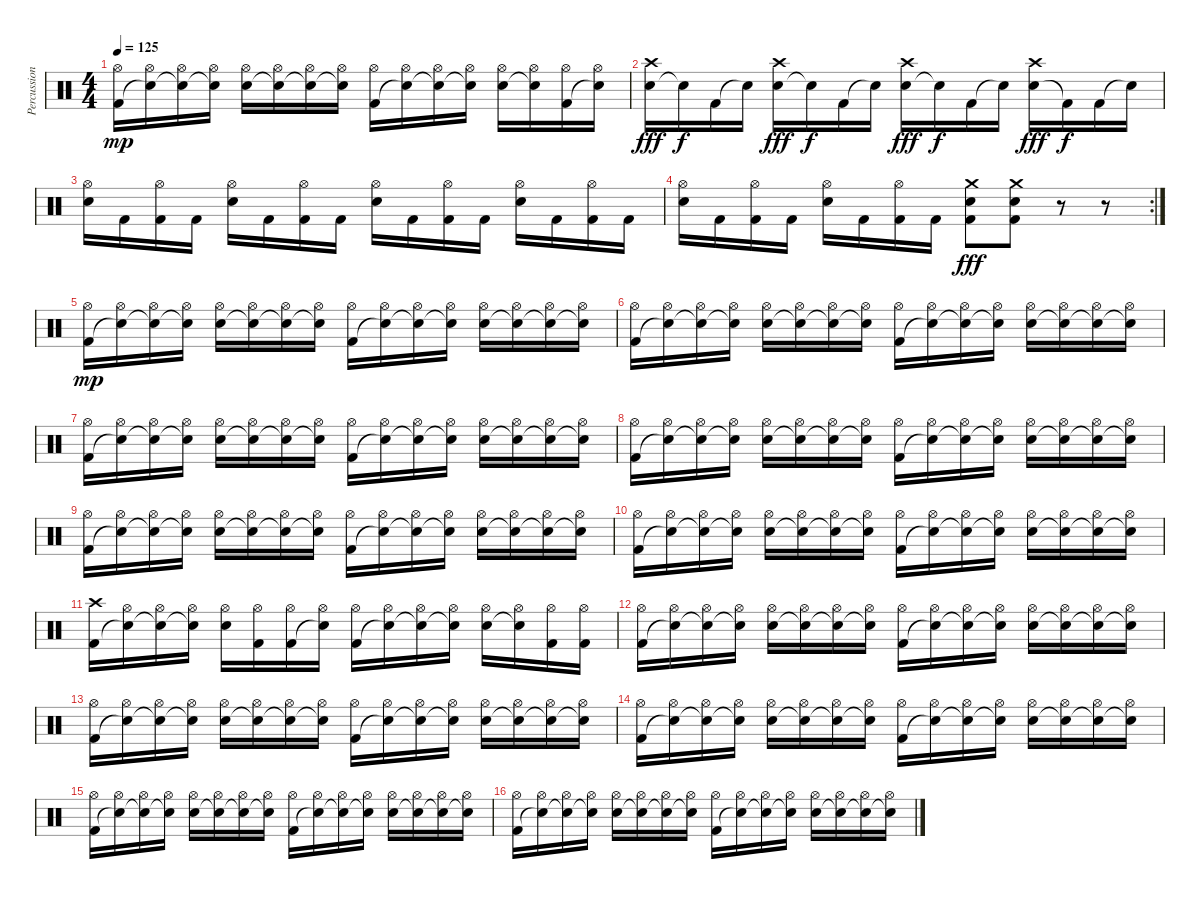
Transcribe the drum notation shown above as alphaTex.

\track ("Percussion" "Percussion") {instrument percussion}
\staff {score}
\articulation defaults
\ts (4 4)
\tempo 125
\clef neutral
\ks c
("Kick (hit) 2" "Hi-Hat (open)").16{dy mp} ("Snare (hit)"{t} "Hi-Hat (open)").16 ("Snare (hit)"{t} "Hi-Hat (open)").16 ("Snare (hit)"{t} "Hi-Hat (open)").16 ("Electric Snare (hit)" "Hi-Hat (open)").16 ("Snare (hit)"{t} "Hi-Hat (open)").16 ("Snare (hit)"{t} "Hi-Hat (open)").16 ("Snare (hit)"{t} "Hi-Hat (open)").16 ("Kick (hit) 2" "Hi-Hat (open)").16 ("Snare (hit)"{t} "Hi-Hat (open)").16 ("Snare (hit)"{t} "Hi-Hat (open)").16 ("Snare (hit)"{t} "Hi-Hat (open)").16 ("Electric Snare (hit)" "Hi-Hat (open)").16 ("Snare (hit)"{t} "Hi-Hat (open)").16 ("Kick (hit) 2" "Hi-Hat (open)").16 ("Snare (hit)"{t} "Hi-Hat (open)").16 |
("Electric Snare (hit)" "Crash high (hit)").16{dy fff} "Snare (hit)"{t}.16{dy f} "Kick (hit) 2".16 "Snare (hit)"{t}.16 ("Electric Snare (hit)" "Crash high (hit)").16{dy fff} "Snare (hit)"{t}.16{dy f} "Kick (hit) 2".16 "Snare (hit)"{t}.16 ("Electric Snare (hit)" "Crash high (hit)").16{dy fff} "Snare (hit)"{t}.16{dy f} "Kick (hit) 2".16 "Snare (hit)"{t}.16 ("Electric Snare (hit)" "Crash high (hit)").16{dy fff} "Kick (hit) 2"{t}.16{dy f} "Kick (hit) 2".16 "Snare (hit)"{t}.16 |
("Electric Snare (hit)" "Hi-Hat (open)").16 "Kick (hit) 2".16 ("Kick (hit) 2" "Hi-Hat (open)").16 "Kick (hit) 2".16 ("Electric Snare (hit)" "Hi-Hat (open)").16 "Kick (hit) 2".16 ("Kick (hit) 2" "Hi-Hat (open)").16 "Kick (hit) 2".16 ("Electric Snare (hit)" "Hi-Hat (open)").16 "Kick (hit) 2".16 ("Kick (hit) 2" "Hi-Hat (open)").16 "Kick (hit) 2".16 ("Electric Snare (hit)" "Hi-Hat (open)").16 "Kick (hit) 2".16 ("Kick (hit) 2" "Hi-Hat (open)").16 "Kick (hit) 2".16 |
\rc 2
("Electric Snare (hit)" "Hi-Hat (open)").16 "Kick (hit) 2".16 ("Kick (hit) 2" "Hi-Hat (open)").16 "Kick (hit) 2".16 ("Electric Snare (hit)" "Hi-Hat (open)").16 "Kick (hit) 2".16 ("Kick (hit) 2" "Hi-Hat (open)").16 "Kick (hit) 2".16 ("Electric Snare (hit)" "Kick (hit) 2" "Crash medium (hit)").8{dy fff} ("Electric Snare (hit)" "Kick (hit) 2" "Crash medium (hit)").8 r.8 r.8 |
("Kick (hit) 2" "Hi-Hat (open)").16{dy mp} ("Snare (hit)"{t} "Hi-Hat (open)").16 ("Snare (hit)"{t} "Hi-Hat (open)").16 ("Snare (hit)"{t} "Hi-Hat (open)").16 ("Electric Snare (hit)" "Hi-Hat (open)").16 ("Snare (hit)"{t} "Hi-Hat (open)").16 ("Snare (hit)"{t} "Hi-Hat (open)").16 ("Snare (hit)"{t} "Hi-Hat (open)").16 ("Kick (hit) 2" "Hi-Hat (open)").16 ("Snare (hit)"{t} "Hi-Hat (open)").16 ("Snare (hit)"{t} "Hi-Hat (open)").16 ("Snare (hit)"{t} "Hi-Hat (open)").16 ("Electric Snare (hit)" "Hi-Hat (open)").16 ("Snare (hit)"{t} "Hi-Hat (open)").16 ("Snare (hit)"{t} "Hi-Hat (open)").16 ("Snare (hit)"{t} "Hi-Hat (open)").16 |
("Kick (hit) 2" "Hi-Hat (open)").16 ("Snare (hit)"{t} "Hi-Hat (open)").16 ("Snare (hit)"{t} "Hi-Hat (open)").16 ("Snare (hit)"{t} "Hi-Hat (open)").16 ("Electric Snare (hit)" "Hi-Hat (open)").16 ("Snare (hit)"{t} "Hi-Hat (open)").16 ("Snare (hit)"{t} "Hi-Hat (open)").16 ("Snare (hit)"{t} "Hi-Hat (open)").16 ("Kick (hit) 2" "Hi-Hat (open)").16 ("Snare (hit)"{t} "Hi-Hat (open)").16 ("Snare (hit)"{t} "Hi-Hat (open)").16 ("Snare (hit)"{t} "Hi-Hat (open)").16 ("Electric Snare (hit)" "Hi-Hat (open)").16 ("Snare (hit)"{t} "Hi-Hat (open)").16 ("Snare (hit)"{t} "Hi-Hat (open)").16 ("Snare (hit)"{t} "Hi-Hat (open)").16 |
("Kick (hit) 2" "Hi-Hat (open)").16 ("Snare (hit)"{t} "Hi-Hat (open)").16 ("Snare (hit)"{t} "Hi-Hat (open)").16 ("Snare (hit)"{t} "Hi-Hat (open)").16 ("Electric Snare (hit)" "Hi-Hat (open)").16 ("Snare (hit)"{t} "Hi-Hat (open)").16 ("Snare (hit)"{t} "Hi-Hat (open)").16 ("Snare (hit)"{t} "Hi-Hat (open)").16 ("Kick (hit) 2" "Hi-Hat (open)").16 ("Snare (hit)"{t} "Hi-Hat (open)").16 ("Snare (hit)"{t} "Hi-Hat (open)").16 ("Snare (hit)"{t} "Hi-Hat (open)").16 ("Electric Snare (hit)" "Hi-Hat (open)").16 ("Snare (hit)"{t} "Hi-Hat (open)").16 ("Snare (hit)"{t} "Hi-Hat (open)").16 ("Snare (hit)"{t} "Hi-Hat (open)").16 |
("Kick (hit) 2" "Hi-Hat (open)").16 ("Snare (hit)"{t} "Hi-Hat (open)").16 ("Snare (hit)"{t} "Hi-Hat (open)").16 ("Snare (hit)"{t} "Hi-Hat (open)").16 ("Electric Snare (hit)" "Hi-Hat (open)").16 ("Snare (hit)"{t} "Hi-Hat (open)").16 ("Snare (hit)"{t} "Hi-Hat (open)").16 ("Snare (hit)"{t} "Hi-Hat (open)").16 ("Kick (hit) 2" "Hi-Hat (open)").16 ("Snare (hit)"{t} "Hi-Hat (open)").16 ("Snare (hit)"{t} "Hi-Hat (open)").16 ("Snare (hit)"{t} "Hi-Hat (open)").16 ("Electric Snare (hit)" "Hi-Hat (open)").16 ("Snare (hit)"{t} "Hi-Hat (open)").16 ("Snare (hit)"{t} "Hi-Hat (open)").16 ("Snare (hit)"{t} "Hi-Hat (open)").16 |
("Kick (hit) 2" "Hi-Hat (open)").16 ("Snare (hit)"{t} "Hi-Hat (open)").16 ("Snare (hit)"{t} "Hi-Hat (open)").16 ("Snare (hit)"{t} "Hi-Hat (open)").16 ("Electric Snare (hit)" "Hi-Hat (open)").16 ("Snare (hit)"{t} "Hi-Hat (open)").16 ("Snare (hit)"{t} "Hi-Hat (open)").16 ("Snare (hit)"{t} "Hi-Hat (open)").16 ("Kick (hit) 2" "Hi-Hat (open)").16 ("Snare (hit)"{t} "Hi-Hat (open)").16 ("Snare (hit)"{t} "Hi-Hat (open)").16 ("Snare (hit)"{t} "Hi-Hat (open)").16 ("Electric Snare (hit)" "Hi-Hat (open)").16 ("Snare (hit)"{t} "Hi-Hat (open)").16 ("Snare (hit)"{t} "Hi-Hat (open)").16 ("Snare (hit)"{t} "Hi-Hat (open)").16 |
("Kick (hit) 2" "Hi-Hat (open)").16 ("Snare (hit)"{t} "Hi-Hat (open)").16 ("Snare (hit)"{t} "Hi-Hat (open)").16 ("Snare (hit)"{t} "Hi-Hat (open)").16 ("Electric Snare (hit)" "Hi-Hat (open)").16 ("Snare (hit)"{t} "Hi-Hat (open)").16 ("Snare (hit)"{t} "Hi-Hat (open)").16 ("Snare (hit)"{t} "Hi-Hat (open)").16 ("Kick (hit) 2" "Hi-Hat (open)").16 ("Snare (hit)"{t} "Hi-Hat (open)").16 ("Snare (hit)"{t} "Hi-Hat (open)").16 ("Snare (hit)"{t} "Hi-Hat (open)").16 ("Electric Snare (hit)" "Hi-Hat (open)").16 ("Snare (hit)"{t} "Hi-Hat (open)").16 ("Snare (hit)"{t} "Hi-Hat (open)").16 ("Snare (hit)"{t} "Hi-Hat (open)").16 |
("Kick (hit) 2" "Crash high (hit)").16 ("Snare (hit)"{t} "Hi-Hat (open)").16 ("Snare (hit)"{t} "Hi-Hat (open)").16 ("Snare (hit)"{t} "Hi-Hat (open)").16 ("Electric Snare (hit)" "Hi-Hat (open)").16 ("Kick (hit) 2" "Hi-Hat (open)").16 ("Kick (hit) 2" "Hi-Hat (open)").16 ("Snare (hit)"{t} "Hi-Hat (open)").16 ("Kick (hit) 2" "Hi-Hat (open)").16 ("Snare (hit)"{t} "Hi-Hat (open)").16 ("Snare (hit)"{t} "Hi-Hat (open)").16 ("Snare (hit)"{t} "Hi-Hat (open)").16 ("Electric Snare (hit)" "Hi-Hat (open)").16 ("Snare (hit)"{t} "Hi-Hat (open)").16 ("Kick (hit) 2" "Hi-Hat (open)").16 ("Kick (hit) 2" "Hi-Hat (open)").16 |
("Kick (hit) 2" "Hi-Hat (open)").16 ("Snare (hit)"{t} "Hi-Hat (open)").16 ("Snare (hit)"{t} "Hi-Hat (open)").16 ("Snare (hit)"{t} "Hi-Hat (open)").16 ("Electric Snare (hit)" "Hi-Hat (open)").16 ("Snare (hit)"{t} "Hi-Hat (open)").16 ("Snare (hit)"{t} "Hi-Hat (open)").16 ("Snare (hit)"{t} "Hi-Hat (open)").16 ("Kick (hit) 2" "Hi-Hat (open)").16 ("Snare (hit)"{t} "Hi-Hat (open)").16 ("Snare (hit)"{t} "Hi-Hat (open)").16 ("Snare (hit)"{t} "Hi-Hat (open)").16 ("Electric Snare (hit)" "Hi-Hat (open)").16 ("Snare (hit)"{t} "Hi-Hat (open)").16 ("Snare (hit)"{t} "Hi-Hat (open)").16 ("Snare (hit)"{t} "Hi-Hat (open)").16 |
("Kick (hit) 2" "Hi-Hat (open)").16 ("Snare (hit)"{t} "Hi-Hat (open)").16 ("Snare (hit)"{t} "Hi-Hat (open)").16 ("Snare (hit)"{t} "Hi-Hat (open)").16 ("Electric Snare (hit)" "Hi-Hat (open)").16 ("Snare (hit)"{t} "Hi-Hat (open)").16 ("Snare (hit)"{t} "Hi-Hat (open)").16 ("Snare (hit)"{t} "Hi-Hat (open)").16 ("Kick (hit) 2" "Hi-Hat (open)").16 ("Snare (hit)"{t} "Hi-Hat (open)").16 ("Snare (hit)"{t} "Hi-Hat (open)").16 ("Snare (hit)"{t} "Hi-Hat (open)").16 ("Electric Snare (hit)" "Hi-Hat (open)").16 ("Snare (hit)"{t} "Hi-Hat (open)").16 ("Snare (hit)"{t} "Hi-Hat (open)").16 ("Snare (hit)"{t} "Hi-Hat (open)").16 |
("Kick (hit) 2" "Hi-Hat (open)").16 ("Snare (hit)"{t} "Hi-Hat (open)").16 ("Snare (hit)"{t} "Hi-Hat (open)").16 ("Snare (hit)"{t} "Hi-Hat (open)").16 ("Electric Snare (hit)" "Hi-Hat (open)").16 ("Snare (hit)"{t} "Hi-Hat (open)").16 ("Snare (hit)"{t} "Hi-Hat (open)").16 ("Snare (hit)"{t} "Hi-Hat (open)").16 ("Kick (hit) 2" "Hi-Hat (open)").16 ("Snare (hit)"{t} "Hi-Hat (open)").16 ("Snare (hit)"{t} "Hi-Hat (open)").16 ("Snare (hit)"{t} "Hi-Hat (open)").16 ("Electric Snare (hit)" "Hi-Hat (open)").16 ("Snare (hit)"{t} "Hi-Hat (open)").16 ("Snare (hit)"{t} "Hi-Hat (open)").16 ("Snare (hit)"{t} "Hi-Hat (open)").16 |
("Kick (hit) 2" "Hi-Hat (open)").16 ("Snare (hit)"{t} "Hi-Hat (open)").16 ("Snare (hit)"{t} "Hi-Hat (open)").16 ("Snare (hit)"{t} "Hi-Hat (open)").16 ("Electric Snare (hit)" "Hi-Hat (open)").16 ("Snare (hit)"{t} "Hi-Hat (open)").16 ("Snare (hit)"{t} "Hi-Hat (open)").16 ("Snare (hit)"{t} "Hi-Hat (open)").16 ("Kick (hit) 2" "Hi-Hat (open)").16 ("Snare (hit)"{t} "Hi-Hat (open)").16 ("Snare (hit)"{t} "Hi-Hat (open)").16 ("Snare (hit)"{t} "Hi-Hat (open)").16 ("Electric Snare (hit)" "Hi-Hat (open)").16 ("Snare (hit)"{t} "Hi-Hat (open)").16 ("Snare (hit)"{t} "Hi-Hat (open)").16 ("Snare (hit)"{t} "Hi-Hat (open)").16 |
("Kick (hit) 2" "Hi-Hat (open)").16 ("Snare (hit)"{t} "Hi-Hat (open)").16 ("Snare (hit)"{t} "Hi-Hat (open)").16 ("Snare (hit)"{t} "Hi-Hat (open)").16 ("Electric Snare (hit)" "Hi-Hat (open)").16 ("Snare (hit)"{t} "Hi-Hat (open)").16 ("Snare (hit)"{t} "Hi-Hat (open)").16 ("Snare (hit)"{t} "Hi-Hat (open)").16 ("Kick (hit) 2" "Hi-Hat (open)").16 ("Snare (hit)"{t} "Hi-Hat (open)").16 ("Snare (hit)"{t} "Hi-Hat (open)").16 ("Snare (hit)"{t} "Hi-Hat (open)").16 ("Electric Snare (hit)" "Hi-Hat (open)").16 ("Snare (hit)"{t} "Hi-Hat (open)").16 ("Snare (hit)"{t} "Hi-Hat (open)").16 ("Snare (hit)"{t} "Hi-Hat (open)").16
